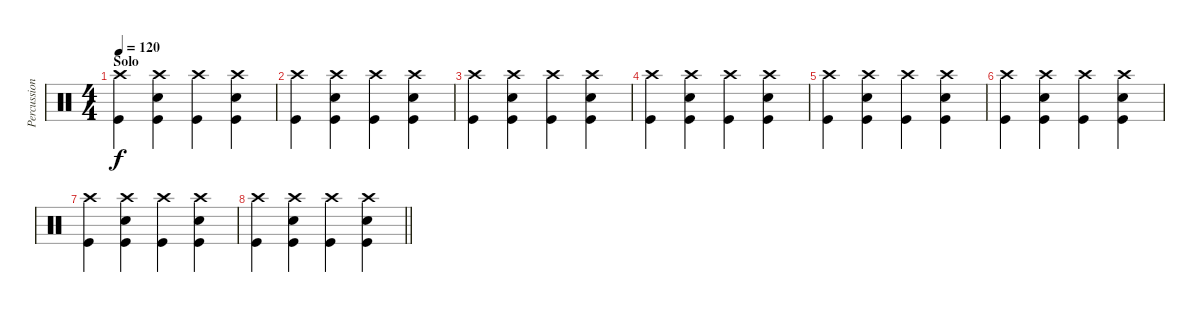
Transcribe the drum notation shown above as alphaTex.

\track ("Percussions" "Percussion") {instrument percussion}
\staff {score}
\articulation defaults
\ts (4 4)
\section ("" "Solo")
\tempo 120
\clef neutral
\ks c
("Crash high (hit)" "Kick (hit)").4{dy f} ("Crash high (hit)" "Snare (hit) 2" "Kick (hit)").4 ("Crash high (hit)" "Kick (hit)").4 ("Crash high (hit)" "Snare (hit) 2" "Kick (hit)").4 |
("Crash high (hit)" "Kick (hit)").4 ("Crash high (hit)" "Snare (hit) 2" "Kick (hit)").4 ("Crash high (hit)" "Kick (hit)").4 ("Crash high (hit)" "Snare (hit) 2" "Kick (hit)").4 |
("Crash high (hit)" "Kick (hit)").4 ("Crash high (hit)" "Snare (hit) 2" "Kick (hit)").4 ("Crash high (hit)" "Kick (hit)").4 ("Crash high (hit)" "Snare (hit) 2" "Kick (hit)").4 |
("Crash high (hit)" "Kick (hit)").4 ("Crash high (hit)" "Snare (hit) 2" "Kick (hit)").4 ("Crash high (hit)" "Kick (hit)").4 ("Crash high (hit)" "Snare (hit) 2" "Kick (hit)").4 |
("Crash high (hit)" "Kick (hit)").4{volume 0} ("Crash high (hit)" "Snare (hit) 2" "Kick (hit)").4 ("Crash high (hit)" "Kick (hit)").4 ("Crash high (hit)" "Snare (hit) 2" "Kick (hit)").4 |
("Crash high (hit)" "Kick (hit)").4 ("Crash high (hit)" "Snare (hit) 2" "Kick (hit)").4 ("Crash high (hit)" "Kick (hit)").4 ("Crash high (hit)" "Snare (hit) 2" "Kick (hit)").4 |
("Crash high (hit)" "Kick (hit)").4 ("Crash high (hit)" "Snare (hit) 2" "Kick (hit)").4 ("Crash high (hit)" "Kick (hit)").4 ("Crash high (hit)" "Snare (hit) 2" "Kick (hit)").4 |
\barLineRight lightlight
("Crash high (hit)" "Kick (hit)").4 ("Crash high (hit)" "Snare (hit) 2" "Kick (hit)").4 ("Crash high (hit)" "Kick (hit)").4 ("Crash high (hit)" "Snare (hit) 2" "Kick (hit)").4
